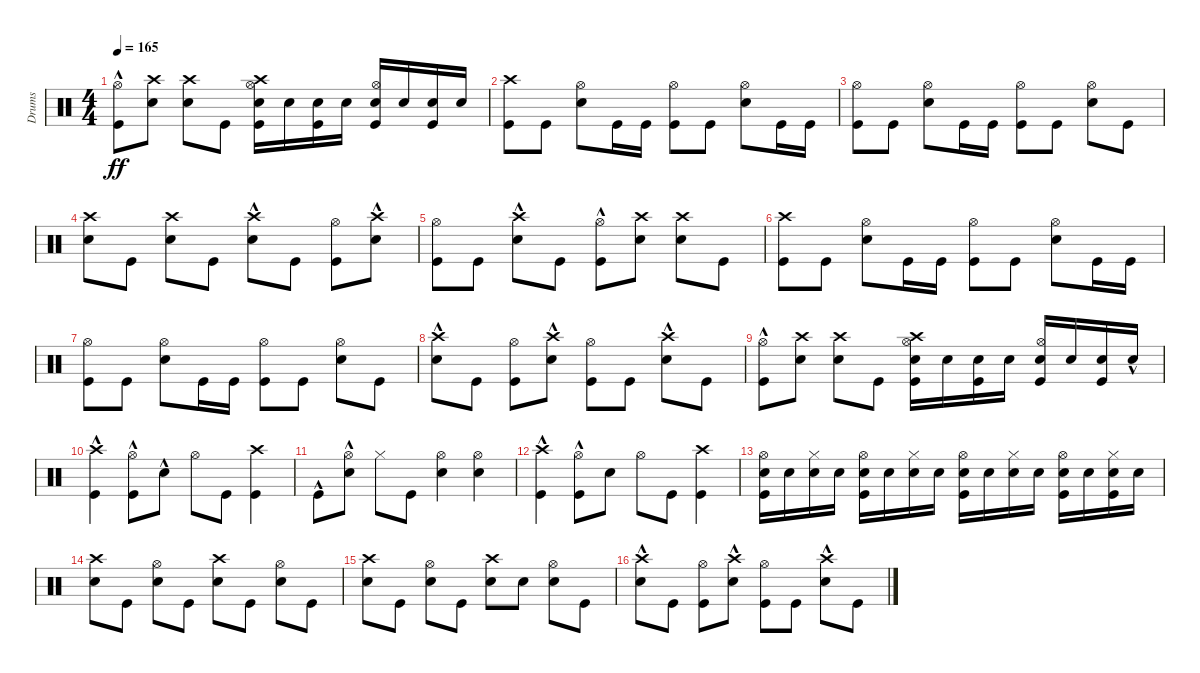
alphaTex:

\track ("Drums" "Drums") {instrument percussion}
\staff {score}
\articulation defaults
\ts (4 4)
\tempo 165
\clef neutral
\ks c
("Kick (hit)"{hac} "Hi-Hat (open)").8{dy ff} ("Snare (hit) 2" "Crash high (hit)").8 ("Snare (hit) 2" "Crash high (hit)").8 "Kick (hit)".8 ("Kick (hit)" "Snare (hit) 2" "Hi-Hat (open)" "Crash high (hit)").16 "Snare (hit) 2".16 ("Kick (hit)" "Snare (hit) 2").16 "Snare (hit) 2".16 ("Kick (hit)" "Snare (hit) 2" "Hi-Hat (open)").16 "Snare (hit) 2".16 ("Kick (hit)" "Snare (hit) 2").16 "Snare (hit) 2".16 |
("Kick (hit)" "Crash high (hit)").8 "Kick (hit)".8 ("Snare (hit) 2" "Hi-Hat (open)").8 "Kick (hit)".16 "Kick (hit)".16 ("Kick (hit)" "Hi-Hat (open)").8 "Kick (hit)".8 ("Snare (hit) 2" "Hi-Hat (open)").8 "Kick (hit)".16 "Kick (hit)".16 |
("Kick (hit)" "Hi-Hat (open)").8 "Kick (hit)".8 ("Snare (hit) 2" "Hi-Hat (open)").8 "Kick (hit)".16 "Kick (hit)".16 ("Kick (hit)" "Hi-Hat (open)").8 "Kick (hit)".8 ("Snare (hit) 2" "Hi-Hat (open)").8 "Kick (hit)".8 |
("Snare (hit) 2" "Crash high (hit)").8 "Kick (hit)".8 ("Snare (hit) 2" "Crash high (hit)").8 "Kick (hit)".8 ("Snare (hit) 2"{hac} "Crash high (hit)"{hac}).8 "Kick (hit)".8 ("Kick (hit)" "Hi-Hat (open)").8 ("Snare (hit) 2"{hac} "Crash high (hit)"{hac}).8 |
("Kick (hit)" "Hi-Hat (open)").8 "Kick (hit)".8 ("Snare (hit) 2"{hac} "Crash high (hit)"{hac}).8 "Kick (hit)".8 ("Kick (hit)"{hac} "Hi-Hat (open)"{hac}).8 ("Snare (hit) 2" "Crash high (hit)").8 ("Snare (hit) 2" "Crash high (hit)").8 "Kick (hit)".8 |
("Kick (hit)" "Crash high (hit)").8 "Kick (hit)".8 ("Snare (hit) 2" "Hi-Hat (open)").8 "Kick (hit)".16 "Kick (hit)".16 ("Kick (hit)" "Hi-Hat (open)").8 "Kick (hit)".8 ("Snare (hit) 2" "Hi-Hat (open)").8 "Kick (hit)".16 "Kick (hit)".16 |
("Kick (hit)" "Hi-Hat (open)").8 "Kick (hit)".8 ("Snare (hit) 2" "Hi-Hat (open)").8 "Kick (hit)".16 "Kick (hit)".16 ("Kick (hit)" "Hi-Hat (open)").8 "Kick (hit)".8 ("Snare (hit) 2" "Hi-Hat (open)").8 "Kick (hit)".8 |
("Snare (hit) 2"{hac} "Crash high (hit)"{hac}).8 "Kick (hit)".8 ("Kick (hit)" "Hi-Hat (open)").8 ("Snare (hit) 2"{hac} "Crash high (hit)"{hac}).8 ("Kick (hit)" "Hi-Hat (open)").8 "Kick (hit)".8 ("Snare (hit) 2"{hac} "Crash high (hit)"{hac}).8 "Kick (hit)".8 |
("Kick (hit)"{hac} "Hi-Hat (open)").8 ("Snare (hit) 2" "Crash high (hit)").8 ("Snare (hit) 2" "Crash high (hit)").8 "Kick (hit)".8 ("Kick (hit)" "Snare (hit) 2" "Hi-Hat (open)" "Crash high (hit)").16 "Snare (hit) 2".16 ("Kick (hit)" "Snare (hit) 2").16 "Snare (hit) 2".16 ("Kick (hit)" "Snare (hit) 2" "Hi-Hat (open)").16 "Snare (hit) 2".16 ("Kick (hit)" "Snare (hit) 2").16 "Snare (hit) 2"{hac}.16 |
("Kick (hit)" "Crash high (hit)"{hac}).4 ("Kick (hit)"{hac} "Hi-Hat (open)").8 "Snare (hit) 2"{hac}.8 "Hi-Hat (open)".8 "Kick (hit)".8 ("Kick (hit)" "Crash high (hit)").4 |
"Kick (hit)"{hac}.8 ("Snare (hit) 2"{hac} "Hi-Hat (open)"{hac}).8 "Hi-Hat (closed)".8 "Kick (hit)".8 ("Snare (hit) 2" "Hi-Hat (open)").4 ("Snare (hit) 2" "Hi-Hat (open)").4 |
("Kick (hit)" "Crash high (hit)"{hac}).4 ("Kick (hit)"{hac} "Hi-Hat (open)").8 "Snare (hit) 2".8 "Hi-Hat (open)".8 "Kick (hit)".8 ("Kick (hit)" "Crash high (hit)").4 |
("Kick (hit)" "Snare (hit) 2" "Hi-Hat (open)").16 "Snare (hit) 2".16 ("Snare (hit) 2" "Hi-Hat (closed)").16 "Snare (hit) 2".16 ("Kick (hit)" "Snare (hit) 2" "Hi-Hat (open)").16 "Snare (hit) 2".16 ("Snare (hit) 2" "Hi-Hat (closed)").16 "Snare (hit) 2".16 ("Kick (hit)" "Snare (hit) 2" "Hi-Hat (open)").16 "Snare (hit) 2".16 ("Snare (hit) 2" "Hi-Hat (closed)").16 "Snare (hit) 2".16 ("Kick (hit)" "Snare (hit) 2" "Hi-Hat (open)").16 "Snare (hit) 2".16 ("Kick (hit)" "Snare (hit) 2" "Hi-Hat (closed)").16 "Snare (hit) 2".16 |
("Snare (hit) 2" "Crash high (hit)").8 "Kick (hit)".8 ("Snare (hit) 2" "Hi-Hat (open)").8 "Kick (hit)".8 ("Snare (hit) 2" "Crash high (hit)").8 "Kick (hit)".8 ("Snare (hit) 2" "Hi-Hat (open)").8 "Kick (hit)".8 |
("Snare (hit) 2" "Crash high (hit)").8 "Kick (hit)".8 ("Snare (hit) 2" "Hi-Hat (open)").8 "Kick (hit)".8 ("Snare (hit) 2" "Crash high (hit)").8 "Snare (hit) 2".8 ("Snare (hit) 2" "Hi-Hat (open)").8 "Kick (hit)".8 |
("Snare (hit) 2"{hac} "Crash high (hit)"{hac}).8 "Kick (hit)".8 ("Kick (hit)" "Hi-Hat (open)").8 ("Snare (hit) 2"{hac} "Crash high (hit)"{hac}).8 ("Kick (hit)" "Hi-Hat (open)").8 "Kick (hit)".8 ("Snare (hit) 2"{hac} "Crash high (hit)"{hac}).8 "Kick (hit)".8
